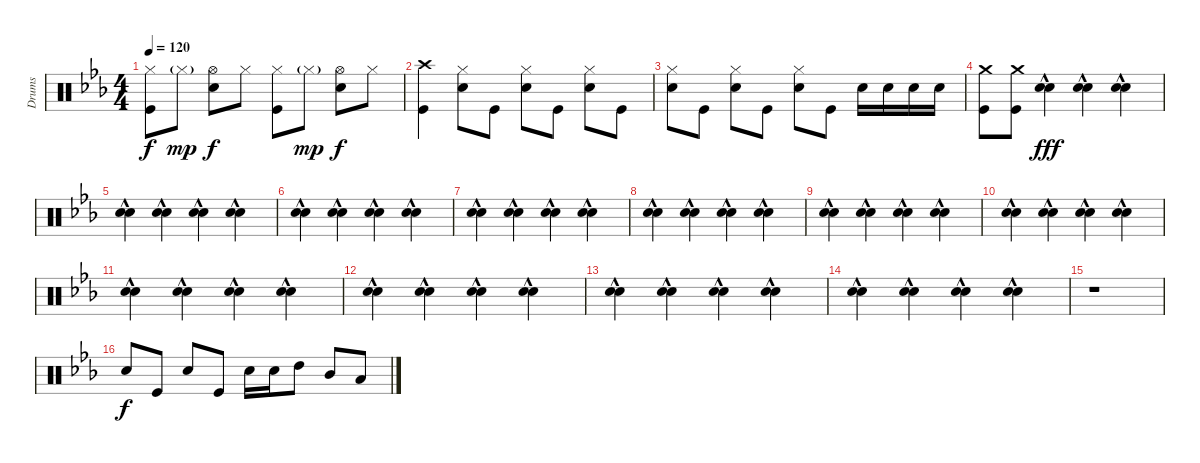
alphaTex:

\track ("Drums" "Drums") {instrument percussion}
\staff {score}
\articulation defaults
\ts (4 4)
\tempo 120
\clef neutral
\ks eb
("Hi-Hat (closed)" "Kick (hit)").8{dy f} "Hi-Hat (closed)"{g}.8{dy mp} ("Hi-Hat (open)" "Electric Snare (hit)").8{dy f} "Hi-Hat (closed)".8 ("Hi-Hat (closed)" "Kick (hit)").8 "Hi-Hat (closed)"{g}.8{dy mp} ("Hi-Hat (open)" "Electric Snare (hit)").8{dy f} "Hi-Hat (closed)".8 |
("Crash high (hit)" "Kick (hit)").4 ("Hi-Hat (closed)" "Electric Snare (hit)").8 "Kick (hit)".8 ("Hi-Hat (closed)" "Electric Snare (hit)").8 "Kick (hit)".8 ("Hi-Hat (closed)" "Electric Snare (hit)").8 "Kick (hit)".8 |
("Hi-Hat (closed)" "Electric Snare (hit)").8 "Kick (hit)".8 ("Hi-Hat (closed)" "Electric Snare (hit)").8 "Kick (hit)".8 ("Hi-Hat (closed)" "Electric Snare (hit)").8 "Kick (hit)".8 "Electric Snare (hit)".16 "Electric Snare (hit)".16 "Electric Snare (hit)".16 "Electric Snare (hit)".16 |
("Crash medium (hit)" "Kick (hit)").8 ("Crash medium (hit)" "Kick (hit)").8 ("Hand Clap (hit)"{hac} "Hand Clap (hit)"{hac}).4{dy fff} ("Hand Clap (hit)"{hac} "Hand Clap (hit)"{hac}).4 ("Hand Clap (hit)"{hac} "Hand Clap (hit)"{hac}).4 |
("Hand Clap (hit)"{hac} "Hand Clap (hit)"{hac}).4 ("Hand Clap (hit)"{hac} "Hand Clap (hit)"{hac}).4 ("Hand Clap (hit)"{hac} "Hand Clap (hit)"{hac}).4 ("Hand Clap (hit)"{hac} "Hand Clap (hit)"{hac}).4 |
("Hand Clap (hit)"{hac} "Hand Clap (hit)"{hac}).4 ("Hand Clap (hit)"{hac} "Hand Clap (hit)"{hac}).4 ("Hand Clap (hit)"{hac} "Hand Clap (hit)"{hac}).4 ("Hand Clap (hit)"{hac} "Hand Clap (hit)"{hac}).4 |
("Hand Clap (hit)"{hac} "Hand Clap (hit)"{hac}).4 ("Hand Clap (hit)"{hac} "Hand Clap (hit)"{hac}).4 ("Hand Clap (hit)"{hac} "Hand Clap (hit)"{hac}).4 ("Hand Clap (hit)"{hac} "Hand Clap (hit)"{hac}).4 |
("Hand Clap (hit)"{hac} "Hand Clap (hit)"{hac}).4 ("Hand Clap (hit)"{hac} "Hand Clap (hit)"{hac}).4 ("Hand Clap (hit)"{hac} "Hand Clap (hit)"{hac}).4 ("Hand Clap (hit)"{hac} "Hand Clap (hit)"{hac}).4 |
("Hand Clap (hit)"{hac} "Hand Clap (hit)"{hac}).4 ("Hand Clap (hit)"{hac} "Hand Clap (hit)"{hac}).4 ("Hand Clap (hit)"{hac} "Hand Clap (hit)"{hac}).4 ("Hand Clap (hit)"{hac} "Hand Clap (hit)"{hac}).4 |
("Hand Clap (hit)"{hac} "Hand Clap (hit)"{hac}).4 ("Hand Clap (hit)"{hac} "Hand Clap (hit)"{hac}).4 ("Hand Clap (hit)"{hac} "Hand Clap (hit)"{hac}).4 ("Hand Clap (hit)"{hac} "Hand Clap (hit)"{hac}).4 |
("Hand Clap (hit)"{hac} "Hand Clap (hit)"{hac}).4 ("Hand Clap (hit)"{hac} "Hand Clap (hit)"{hac}).4 ("Hand Clap (hit)"{hac} "Hand Clap (hit)"{hac}).4 ("Hand Clap (hit)"{hac} "Hand Clap (hit)"{hac}).4 |
("Hand Clap (hit)"{hac} "Hand Clap (hit)"{hac}).4 ("Hand Clap (hit)"{hac} "Hand Clap (hit)"{hac}).4 ("Hand Clap (hit)"{hac} "Hand Clap (hit)"{hac}).4 ("Hand Clap (hit)"{hac} "Hand Clap (hit)"{hac}).4 |
("Hand Clap (hit)"{hac} "Hand Clap (hit)"{hac}).4 ("Hand Clap (hit)"{hac} "Hand Clap (hit)"{hac}).4 ("Hand Clap (hit)"{hac} "Hand Clap (hit)"{hac}).4 ("Hand Clap (hit)"{hac} "Hand Clap (hit)"{hac}).4 |
("Hand Clap (hit)"{hac} "Hand Clap (hit)"{hac}).4 ("Hand Clap (hit)"{hac} "Hand Clap (hit)"{hac}).4 ("Hand Clap (hit)"{hac} "Hand Clap (hit)"{hac}).4 ("Hand Clap (hit)"{hac} "Hand Clap (hit)"{hac}).4 |
r.1 |
"Electric Snare (hit)".8{dy f} "Kick (hit)".8 "Electric Snare (hit)".8 "Kick (hit)".8 "Electric Snare (hit)".16 "Electric Snare (hit)".16 "High Tom (hit)".8 "Mid Tom (hit)".8 "Low Tom (hit)".8
